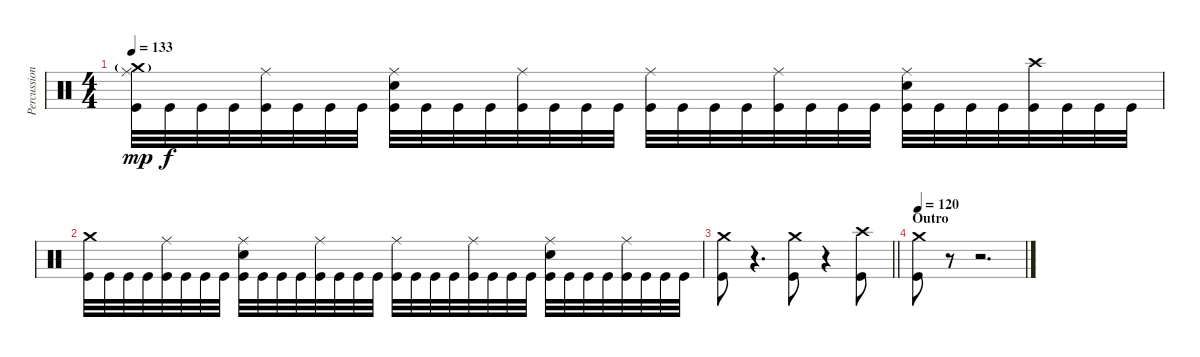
\track ("Percussion" "Percussion") {instrument percussion}
\staff {score}
\articulation defaults
\ts (4 4)
\tempo 133
\clef neutral
\ks c
("Kick (hit)" "Ride (middle)" "Crash medium (hit)"{g}).32{dy mp} "Kick (hit)".32{dy f} "Kick (hit)".32 "Kick (hit)".32 ("Kick (hit)" "Ride (middle)").32 "Kick (hit)".32 "Kick (hit)".32 "Kick (hit)".32 ("Kick (hit)" "Snare (hit) 2" "Ride (middle)").32 "Kick (hit)".32 "Kick (hit)".32 "Kick (hit)".32 ("Kick (hit)" "Ride (middle)").32 "Kick (hit)".32 "Kick (hit)".32 "Kick (hit)".32 ("Kick (hit)" "Ride (middle)").32 "Kick (hit)".32 "Kick (hit)".32 "Kick (hit)".32 ("Kick (hit)" "Ride (middle)").32 "Kick (hit)".32 "Kick (hit)".32 "Kick (hit)".32 ("Kick (hit)" "Snare (hit) 2" "Ride (middle)").32 "Kick (hit)".32 "Kick (hit)".32 "Kick (hit)".32 ("Kick (hit)" "Crash high (hit)").32 "Kick (hit)".32 "Kick (hit)".32 "Kick (hit)".32 |
("Kick (hit)" "Crash medium (hit)").32 "Kick (hit)".32 "Kick (hit)".32 "Kick (hit)".32 ("Kick (hit)" "Ride (middle)").32 "Kick (hit)".32 "Kick (hit)".32 "Kick (hit)".32 ("Kick (hit)" "Snare (hit) 2" "Ride (middle)").32 "Kick (hit)".32 "Kick (hit)".32 "Kick (hit)".32 ("Kick (hit)" "Ride (middle)").32 "Kick (hit)".32 "Kick (hit)".32 "Kick (hit)".32 ("Kick (hit)" "Ride (middle)").32 "Kick (hit)".32 "Kick (hit)".32 "Kick (hit)".32 ("Kick (hit)" "Ride (middle)").32 "Kick (hit)".32 "Kick (hit)".32 "Kick (hit)".32 ("Kick (hit)" "Snare (hit) 2" "Ride (middle)").32 "Kick (hit)".32 "Kick (hit)".32 "Kick (hit)".32 ("Kick (hit)" "Ride (middle)").32 "Kick (hit)".32 "Kick (hit)".32 "Kick (hit)".32 |
\barLineRight lightlight
("Kick (hit)" "Crash medium (hit)").8 r.4{d volume 0} ("Kick (hit)" "Crash medium (hit)").8{volume 13} r.4{volume 0} ("Kick (hit)" "Crash high (hit)").8{volume 13} |
\section ("" "Outro")
\tempo 120
("Kick (hit)" "Crash medium (hit)").8{volume 13} r.8{volume 0} r.2{d}
